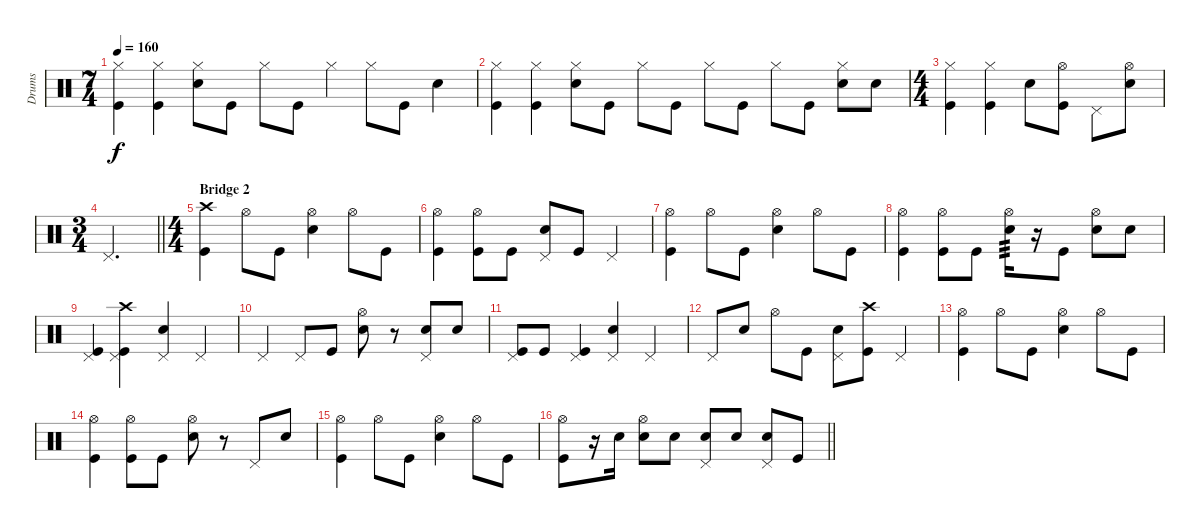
\track ("Drums" "Drums") {instrument percussion}
\staff {score}
\articulation defaults
\ts (7 4)
\tempo 160
\clef neutral
\ks c
("Hi-Hat (closed)" "Kick (hit)").4{dy f} ("Hi-Hat (closed)" "Kick (hit)").4 ("Hi-Hat (closed)" "Snare (hit) 2").8 "Kick (hit)".8 "Hi-Hat (closed)".8 "Kick (hit)".8 "Hi-Hat (closed)".4 "Hi-Hat (closed)".8 "Kick (hit)".8 "Snare (hit) 2".4 |
("Hi-Hat (closed)" "Kick (hit)").4 ("Hi-Hat (closed)" "Kick (hit)").4 ("Hi-Hat (closed)" "Snare (hit) 2").8 "Kick (hit)".8 "Hi-Hat (closed)".8 "Kick (hit)".8 "Hi-Hat (closed)".8 "Kick (hit)".8 "Hi-Hat (closed)".8 "Kick (hit)".8 ("Hi-Hat (closed)" "Snare (hit) 2").8 "Snare (hit) 2".8 |
\ts (4 4)
("Hi-Hat (closed)" "Kick (hit)").4 ("Hi-Hat (closed)" "Kick (hit)").4 "Snare (hit) 2".8 ("Hi-Hat (open)" "Kick (hit)").8 "Pedal Hi-Hat (hit)".8 ("Hi-Hat (open)" "Snare (hit) 2").8 |
\ts (3 4)
\barLineRight lightlight "Pedal Hi-Hat (hit)".2{d}
|
\ts (4 4)
\section ("" "Bridge 2")
("Crash high (hit)" "Kick (hit)").4 "Hi-Hat (open)".8 "Kick (hit)".8 ("Hi-Hat (open)" "Snare (hit) 2").4 "Hi-Hat (open)".8 "Kick (hit)".8 |
("Hi-Hat (open)" "Kick (hit)").4 ("Hi-Hat (open)" "Kick (hit)").8 "Kick (hit)".8 ("Pedal Hi-Hat (hit)" "Snare (hit) 2").8 "Kick (hit)".8 "Pedal Hi-Hat (hit)".4 |
("Hi-Hat (open)" "Kick (hit)").4 "Hi-Hat (open)".8 "Kick (hit)".8 ("Hi-Hat (open)" "Snare (hit) 2").4 "Hi-Hat (open)".8 "Kick (hit)".8 |
("Hi-Hat (open)" "Kick (hit)").4 ("Hi-Hat (open)" "Kick (hit)").8 "Kick (hit)".8 ("Hi-Hat (open)" "Snare (hit) 2").16{tp 3} r.16 "Kick (hit)".8 ("Hi-Hat (open)" "Snare (hit) 2").8 "Snare (hit) 2".8 |
("Pedal Hi-Hat (hit)" "Kick (hit)").4 ("Pedal Hi-Hat (hit)" "Crash high (hit)" "Kick (hit)").4 ("Pedal Hi-Hat (hit)" "Snare (hit) 2").4 "Pedal Hi-Hat (hit)".4 |
"Pedal Hi-Hat (hit)".4 "Pedal Hi-Hat (hit)".8 "Kick (hit)".8 ("Hi-Hat (open)" "Snare (hit) 2").8 r.8 ("Pedal Hi-Hat (hit)" "Snare (hit) 2").8 "Snare (hit) 2".8 |
("Pedal Hi-Hat (hit)" "Kick (hit)").8 "Kick (hit)".8 ("Pedal Hi-Hat (hit)" "Kick (hit)").4 ("Pedal Hi-Hat (hit)" "Snare (hit) 2").4 "Pedal Hi-Hat (hit)".4 |
"Pedal Hi-Hat (hit)".8 "Snare (hit) 2".8 "Hi-Hat (open)".8 "Kick (hit)".8 ("Pedal Hi-Hat (hit)" "Snare (hit) 2").8 ("Crash high (hit)" "Kick (hit)").8 "Pedal Hi-Hat (hit)".4 |
("Hi-Hat (open)" "Kick (hit)").4 "Hi-Hat (open)".8 "Kick (hit)".8 ("Hi-Hat (open)" "Snare (hit) 2").4 "Hi-Hat (open)".8 "Kick (hit)".8 |
("Hi-Hat (open)" "Kick (hit)").4 ("Hi-Hat (open)" "Kick (hit)").8 "Kick (hit)".8 ("Hi-Hat (open)" "Snare (hit) 2").8 r.8 "Pedal Hi-Hat (hit)".8 "Snare (hit) 2".8 |
("Hi-Hat (open)" "Kick (hit)").4 "Hi-Hat (open)".8 "Kick (hit)".8 ("Hi-Hat (open)" "Snare (hit) 2").4 "Hi-Hat (open)".8 "Kick (hit)".8 |
\barLineRight lightlight
("Hi-Hat (open)" "Kick (hit)").8 r.16 "Snare (hit) 2".16 ("Hi-Hat (open)" "Snare (hit) 2").8 "Snare (hit) 2".8 ("Pedal Hi-Hat (hit)" "Snare (hit) 2").8 "Snare (hit) 2".8 ("Pedal Hi-Hat (hit)" "Snare (hit) 2").8 "Kick (hit)".8
